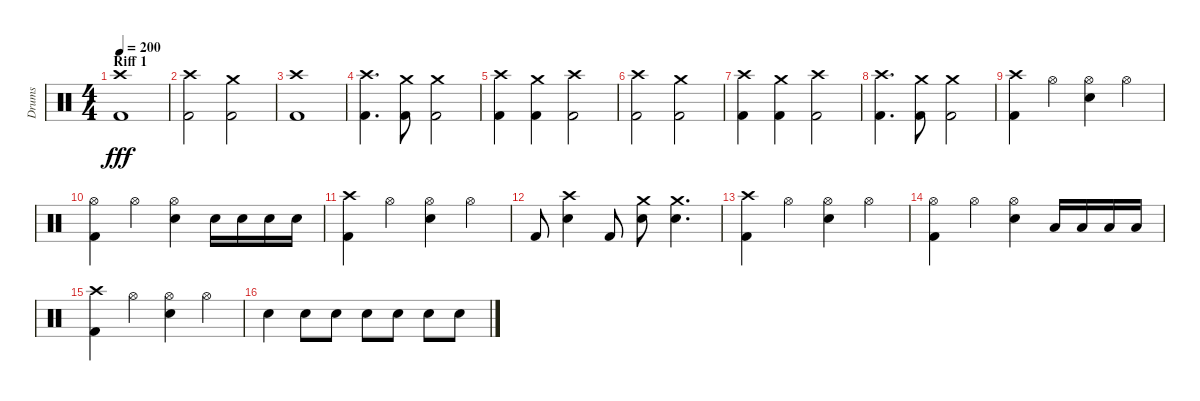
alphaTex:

\track ("Drums" "Drums") {instrument percussion}
\staff {score}
\articulation defaults
\ts (4 4)
\section ("" "Riff 1")
\tempo 200
\clef neutral
\ks c
("Crash high (hit)" "Kick (hit) 2").1{dy fff} |
("Crash high (hit)" "Kick (hit) 2").2 ("Crash medium (hit)" "Kick (hit) 2").2 |
("Crash high (hit)" "Kick (hit) 2").1 |
("Crash high (hit)" "Kick (hit) 2").4{d} ("Crash medium (hit)" "Kick (hit) 2").8 ("Crash medium (hit)" "Kick (hit) 2").2 |
("Crash high (hit)" "Kick (hit) 2").4 ("Crash medium (hit)" "Kick (hit) 2").4 ("Crash high (hit)" "Kick (hit) 2").2 |
("Crash high (hit)" "Kick (hit) 2").2 ("Crash medium (hit)" "Kick (hit) 2").2 |
("Crash high (hit)" "Kick (hit) 2").4 ("Crash medium (hit)" "Kick (hit) 2").4 ("Crash high (hit)" "Kick (hit) 2").2 |
("Crash high (hit)" "Kick (hit) 2").4{d} ("Crash medium (hit)" "Kick (hit) 2").8 ("Crash medium (hit)" "Kick (hit) 2").2 |
("Crash high (hit)" "Kick (hit) 2").4 "Hi-Hat (open)".4 ("Hi-Hat (open)" "Electric Snare (hit)").4 "Hi-Hat (open)".4 |
("Hi-Hat (open)" "Kick (hit) 2").4 "Hi-Hat (open)".4 ("Hi-Hat (open)" "Electric Snare (hit)").4 "Electric Snare (hit)".16 "Electric Snare (hit)".16 "Electric Snare (hit)".16 "Electric Snare (hit)".16 |
("Crash high (hit)" "Kick (hit) 2").4 "Hi-Hat (open)".4 ("Hi-Hat (open)" "Electric Snare (hit)").4 "Hi-Hat (open)".4 |
"Kick (hit) 2".8 ("Crash high (hit)" "Electric Snare (hit)").4 "Kick (hit) 2".8 ("Crash medium (hit)" "Electric Snare (hit)").8 ("Crash medium (hit)" "Electric Snare (hit)").4{d} |
("Crash high (hit)" "Kick (hit) 2").4 "Hi-Hat (open)".4 ("Hi-Hat (open)" "Electric Snare (hit)").4 "Hi-Hat (open)".4 |
("Hi-Hat (open)" "Kick (hit) 2").4 "Hi-Hat (open)".4 ("Hi-Hat (open)" "Electric Snare (hit)").4 "Low Tom (hit)".16 "Low Tom (hit)".16 "Low Tom (hit)".16 "Low Tom (hit)".16 |
("Crash high (hit)" "Kick (hit) 2").4 "Hi-Hat (open)".4 ("Hi-Hat (open)" "Electric Snare (hit)").4 "Hi-Hat (open)".4 |
"Electric Snare (hit)".4 "Electric Snare (hit)".8 "Electric Snare (hit)".8 "Electric Snare (hit)".8 "Electric Snare (hit)".8 "Electric Snare (hit)".8 "Electric Snare (hit)".8
